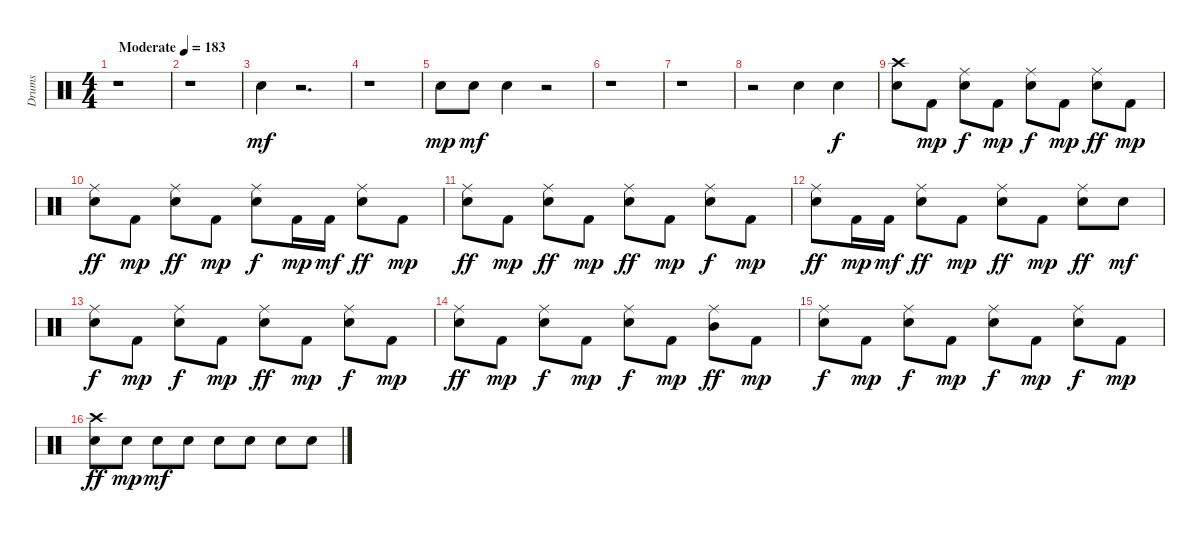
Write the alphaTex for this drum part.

\track ("Drums" "Drums") {instrument percussion}
\staff {score}
\articulation defaults
\ts (4 4)
\tempo (183 "Moderate")
\clef neutral
\ks c
r.1{dy mf} |
r.1 |
"Snare (hit) 2".4 r.2{d} |
r.1 |
"Snare (hit) 2".8{dy mp} "Snare (hit) 2".8{dy mf} "Snare (hit) 2".4 r.2 |
r.1 |
r.1 |
r.2 "Snare (hit) 2".4 "Snare (hit) 2".4{dy f} |
("Snare (hit) 2" "Crash high (hit)").8 "Kick (hit) 2".8{dy mp} ("Snare (hit) 2" "Ride (middle)").8{dy f} "Kick (hit) 2".8{dy mp} ("Snare (hit) 2" "Ride (middle)").8{dy f} "Kick (hit) 2".8{dy mp} ("Snare (hit) 2" "Ride (middle)").8{dy ff} "Kick (hit) 2".8{dy mp} |
("Snare (hit) 2" "Ride (middle)").8{dy ff} "Kick (hit) 2".8{dy mp} ("Snare (hit) 2" "Ride (middle)").8{dy ff} "Kick (hit) 2".8{dy mp} ("Snare (hit) 2" "Ride (middle)").8{dy f} "Kick (hit) 2".16{dy mp} "Kick (hit) 2".16{dy mf} ("Snare (hit) 2" "Ride (middle)").8{dy ff} "Kick (hit) 2".8{dy mp} |
("Snare (hit) 2" "Ride (middle)").8{dy ff} "Kick (hit) 2".8{dy mp} ("Snare (hit) 2" "Ride (middle)").8{dy ff} "Kick (hit) 2".8{dy mp} ("Snare (hit) 2" "Ride (middle)").8{dy ff} "Kick (hit) 2".8{dy mp} ("Snare (hit) 2" "Ride (middle)").8{dy f} "Kick (hit) 2".8{dy mp} |
("Snare (hit) 2" "Ride (middle)").8{dy ff} "Kick (hit) 2".16{dy mp} "Kick (hit) 2".16{dy mf} ("Snare (hit) 2" "Ride (middle)").8{dy ff} "Kick (hit) 2".8{dy mp} ("Snare (hit) 2" "Ride (middle)").8{dy ff} "Kick (hit) 2".8{dy mp} ("Snare (hit) 2" "Ride (middle)").8{dy ff} "Snare (hit) 2".8{dy mf} |
("Snare (hit) 2" "Ride (middle)").8{dy f} "Kick (hit) 2".8{dy mp} ("Snare (hit) 2" "Ride (middle)").8{dy f} "Kick (hit) 2".8{dy mp} ("Snare (hit) 2" "Ride (middle)").8{dy ff} "Kick (hit) 2".8{dy mp} ("Snare (hit) 2" "Ride (middle)").8{dy f} "Kick (hit) 2".8{dy mp} |
("Snare (hit) 2" "Ride (middle)").8{dy ff} "Kick (hit) 2".8{dy mp} ("Snare (hit) 2" "Ride (middle)").8{dy f} "Kick (hit) 2".8{dy mp} ("Snare (hit) 2" "Ride (middle)").8{dy f} "Kick (hit) 2".8{dy mp} ("Mid Tom (hit)" "Ride (middle)").8{dy ff} "Kick (hit) 2".8{dy mp} |
("Snare (hit) 2" "Ride (middle)").8{dy f} "Kick (hit) 2".8{dy mp} ("Snare (hit) 2" "Ride (middle)").8{dy f} "Kick (hit) 2".8{dy mp} ("Snare (hit) 2" "Ride (middle)").8{dy f} "Kick (hit) 2".8{dy mp} ("Snare (hit) 2" "Ride (middle)").8{dy f} "Kick (hit) 2".8{dy mp} |
("Snare (hit) 2" "Crash high (hit)").8{dy ff} "Snare (hit) 2".8{dy mp} "Snare (hit) 2".8{dy mf} "Snare (hit) 2".8 "Snare (hit) 2".8 "Snare (hit) 2".8 "Snare (hit) 2".8 "Snare (hit) 2".8
